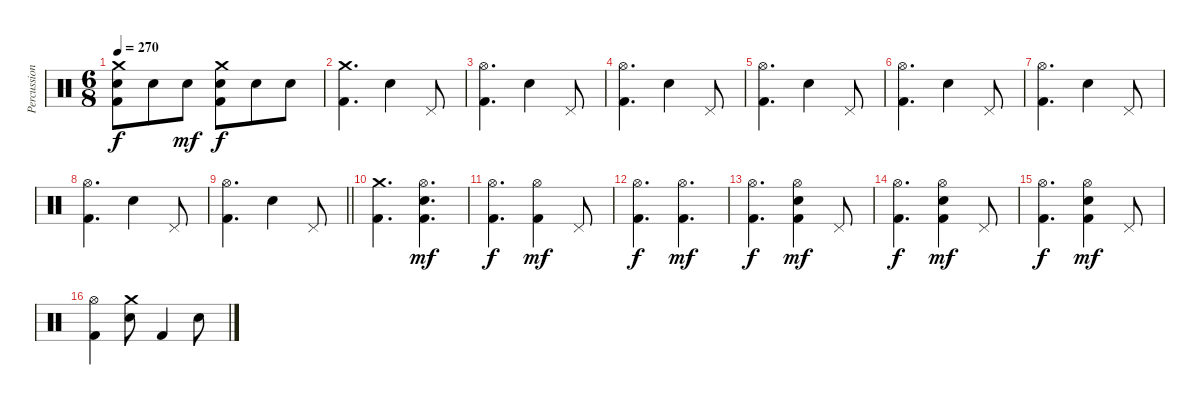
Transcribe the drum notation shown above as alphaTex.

\track ("Percussion" "Percussion") {instrument percussion}
\staff {score}
\articulation defaults
\ts (6 8)
\tempo 270
\clef neutral
\ks c
("Crash medium (hit)" "Snare (hit) 2" "Kick (hit) 2").8{dy f} "Electric Snare (hit)".8 "Electric Snare (hit)".8{dy mf} ("Crash medium (hit)" "Electric Snare (hit)" "Kick (hit) 2").8{dy f} "Electric Snare (hit)".8 "Electric Snare (hit)".8 |
("Crash medium (hit)" "Kick (hit) 2").4{d} "Electric Snare (hit)".4 "Pedal Hi-Hat (hit)".8 |
("Hi-Hat (open)" "Kick (hit) 2").4{d} "Electric Snare (hit)".4 "Pedal Hi-Hat (hit)".8 |
("Hi-Hat (open)" "Kick (hit) 2").4{d} "Electric Snare (hit)".4 "Pedal Hi-Hat (hit)".8 |
("Hi-Hat (open)" "Kick (hit) 2").4{d} "Electric Snare (hit)".4 "Pedal Hi-Hat (hit)".8 |
("Hi-Hat (open)" "Kick (hit) 2").4{d} "Electric Snare (hit)".4 "Pedal Hi-Hat (hit)".8 |
("Hi-Hat (open)" "Kick (hit) 2").4{d} "Electric Snare (hit)".4 "Pedal Hi-Hat (hit)".8 |
("Hi-Hat (open)" "Kick (hit) 2").4{d} "Electric Snare (hit)".4 "Pedal Hi-Hat (hit)".8 |
\barLineRight lightlight
("Hi-Hat (open)" "Kick (hit) 2").4{d} "Electric Snare (hit)".4 "Pedal Hi-Hat (hit)".8 |
("Crash medium (hit)" "Kick (hit) 2").4{d} ("Hi-Hat (open)" "Electric Snare (hit)" "Kick (hit) 2").4{d dy mf} |
("Hi-Hat (open)" "Kick (hit) 2").4{d dy f} ("Hi-Hat (open)" "Kick (hit) 2").4{dy mf} "Pedal Hi-Hat (hit)".8 |
("Hi-Hat (open)" "Kick (hit) 2").4{d dy f} ("Hi-Hat (open)" "Kick (hit) 2").4{d dy mf} |
("Hi-Hat (open)" "Kick (hit) 2").4{d dy f} ("Hi-Hat (open)" "Electric Snare (hit)" "Kick (hit) 2").4{dy mf} "Pedal Hi-Hat (hit)".8 |
("Hi-Hat (open)" "Kick (hit) 2").4{d dy f} ("Hi-Hat (open)" "Electric Snare (hit)" "Kick (hit) 2").4{dy mf} "Pedal Hi-Hat (hit)".8 |
("Hi-Hat (open)" "Kick (hit) 2").4{d dy f} ("Hi-Hat (open)" "Electric Snare (hit)" "Kick (hit) 2").4{dy mf} "Pedal Hi-Hat (hit)".8 |
("Hi-Hat (open)" "Kick (hit) 2").4 ("Crash medium (hit)" "Electric Snare (hit)").8 "Kick (hit) 2".4 "Electric Snare (hit)".8
